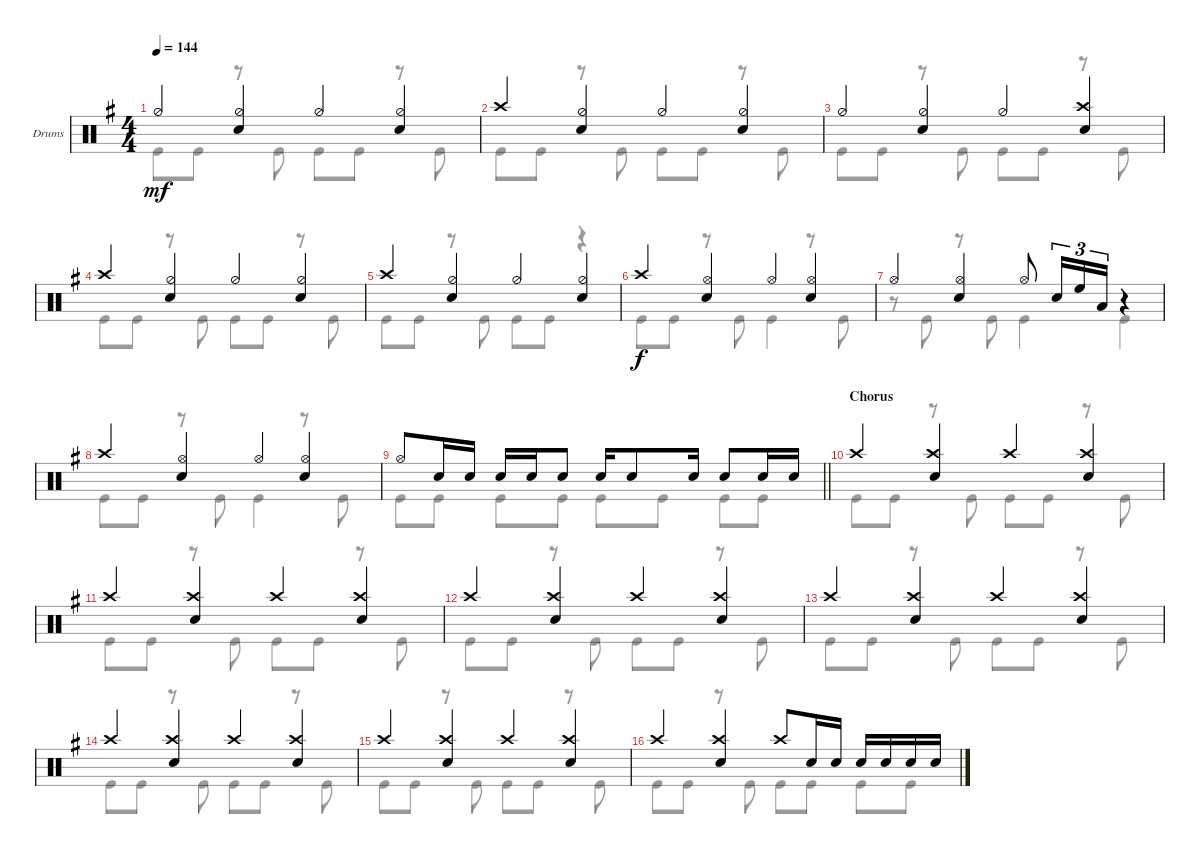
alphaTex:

\bracketExtendMode groupsimilarinstruments
\firstSystemTrackNameOrientation horizontal
\otherSystemsTrackNameOrientation horizontal
\track ("Drumkit" "Drums") {instrument percussion}
\staff {score}
\articulation defaults
\voice
\ts (4 4)
\tempo 144
\clef neutral
\scale
0.333333
\ks g "Hi-Hat (half)".4{dy mf}
("Hi-Hat (half)" "Snare (hit) 2").4 "Hi-Hat (half)".4 ("Hi-Hat (half)" "Snare (hit) 2").4 |
\scale
0.333333 "Crash high (hit)".4 ("Hi-Hat (half)" "Snare (hit) 2").4 "Hi-Hat (half)".4 ("Hi-Hat (half)" "Snare (hit) 2").4 |
\scale
0.333333 "Hi-Hat (half)".4 ("Hi-Hat (half)" "Snare (hit) 2").4 "Hi-Hat (half)".4 ("Crash high (hit)" "Snare (hit) 2").4 |
\scale
0.333333 "Crash high (hit)".4 ("Hi-Hat (half)" "Snare (hit) 2").4 "Hi-Hat (half)".4 ("Hi-Hat (half)" "Snare (hit) 2").4 |
\scale
0.333333 "Crash high (hit)".4 ("Hi-Hat (half)" "Snare (hit) 2").4 "Hi-Hat (half)".4 ("Hi-Hat (half)" "Snare (hit) 2").4 |
\scale
0.333333 "Crash high (hit)".4{dy f} ("Hi-Hat (open)" "Snare (hit) 2").4 "Hi-Hat (open)".4 ("Hi-Hat (open)" "Snare (hit) 2").4 |
\scale
0.333333 "Hi-Hat (open)".4 ("Hi-Hat (open)" "Snare (hit) 2").4 "Hi-Hat (open)".8 "Snare (hit) 2".16{tu (3 2)} "High Floor Tom (hit)".16{tu (3 2)} "Low Tom (hit)".16{tu (3 2)} r.4 |
\scale
0.333333 "Crash high (hit)".4 ("Hi-Hat (open)" "Snare (hit) 2").4 "Hi-Hat (open)".4 ("Hi-Hat (open)" "Snare (hit) 2").4 |
\scale
0.333333
\barLineRight lightlight "Hi-Hat (open)".8 "Snare (hit) 2".16 "Snare (hit) 2".16 "Snare (hit) 2".16 "Snare (hit) 2".16 "Snare (hit) 2".8 "Snare (hit) 2".16 "Snare (hit) 2".8 "Snare (hit) 2".16 "Snare (hit) 2".8 "Snare (hit) 2".16 "Snare (hit) 2".16
|
\section ("" "Chorus")
\scale
0.333333 "Crash high (hit)".4 ("Crash high (hit)" "Snare (hit) 2").4 "Crash high (hit)".4 ("Crash high (hit)" "Snare (hit) 2").4 |
\scale
0.333333 "Crash high (hit)".4 ("Crash high (hit)" "Snare (hit) 2").4 "Crash high (hit)".4 ("Crash high (hit)" "Snare (hit) 2").4 |
\scale
0.333333 "Crash high (hit)".4 ("Crash high (hit)" "Snare (hit) 2").4 "Crash high (hit)".4 ("Crash high (hit)" "Snare (hit) 2").4 |
\scale
0.333333 "Crash high (hit)".4 ("Crash high (hit)" "Snare (hit) 2").4 "Crash high (hit)".4 ("Crash high (hit)" "Snare (hit) 2").4 |
\scale
0.333333 "Crash high (hit)".4 ("Crash high (hit)" "Snare (hit) 2").4 "Crash high (hit)".4 ("Crash high (hit)" "Snare (hit) 2").4 |
\scale
0.333333 "Crash high (hit)".4 ("Crash high (hit)" "Snare (hit) 2").4 "Crash high (hit)".4 ("Crash high (hit)" "Snare (hit) 2").4 |
\scale
0.333333 "Crash high (hit)".4 ("Crash high (hit)" "Snare (hit) 2").4 "Crash high (hit)".8 "Snare (hit) 2".16 "Snare (hit) 2".16 "Snare (hit) 2".16 "Snare (hit) 2".16 "Snare (hit) 2".16 "Snare (hit) 2".16
\voice
\clef neutral
\ottava regular
\simile none
\scale
0.333333
\ks g "Kick (hit)".8{dy mf} "Kick (hit)".8
r.8 "Kick (hit)".8 "Kick (hit)".8 "Kick (hit)".8 r.8 "Kick (hit)".8 |
\scale
0.333333 "Kick (hit)".8 "Kick (hit)".8 r.8 "Kick (hit)".8 "Kick (hit)".8 "Kick (hit)".8 r.8 "Kick (hit)".8 |
\scale
0.333333 "Kick (hit)".8 "Kick (hit)".8 r.8 "Kick (hit)".8 "Kick (hit)".8 "Kick (hit)".8 r.8 "Kick (hit)".8 |
\scale
0.333333 "Kick (hit)".8 "Kick (hit)".8 r.8 "Kick (hit)".8 "Kick (hit)".8 "Kick (hit)".8 r.8 "Kick (hit)".8 |
\scale
0.333333 "Kick (hit)".8 "Kick (hit)".8 r.8 "Kick (hit)".8 "Kick (hit)".8 "Kick (hit)".8 r.4 |
\scale
0.333333 "Kick (hit)".8{dy f} "Kick (hit)".8 r.8 "Kick (hit)".8 "Kick (hit)".4 r.8 "Kick (hit)".8 |
\scale
0.333333 r.8 "Kick (hit)".8 r.8 "Kick (hit)".8 "Kick (hit)".4 "Kick (hit)".4 |
\scale
0.333333 "Kick (hit)".8 "Kick (hit)".8 r.8 "Kick (hit)".8 "Kick (hit)".4 r.8 "Kick (hit)".8 |
\scale
0.333333
\barLineRight lightlight "Kick (hit)".8 "Kick (hit)".8 "Kick (hit)".8 "Kick (hit)".8 "Kick (hit)".8 "Kick (hit)".8 "Kick (hit)".8 "Kick (hit)".8
|
\scale
0.333333 "Kick (hit)".8 "Kick (hit)".8 r.8 "Kick (hit)".8 "Kick (hit)".8 "Kick (hit)".8 r.8 "Kick (hit)".8 |
\scale
0.333333 "Kick (hit)".8 "Kick (hit)".8 r.8 "Kick (hit)".8 "Kick (hit)".8 "Kick (hit)".8 r.8 "Kick (hit)".8 |
\scale
0.333333 "Kick (hit)".8 "Kick (hit)".8 r.8 "Kick (hit)".8 "Kick (hit)".8 "Kick (hit)".8 r.8 "Kick (hit)".8 |
\scale
0.333333 "Kick (hit)".8 "Kick (hit)".8 r.8 "Kick (hit)".8 "Kick (hit)".8 "Kick (hit)".8 r.8 "Kick (hit)".8 |
\scale
0.333333 "Kick (hit)".8 "Kick (hit)".8 r.8 "Kick (hit)".8 "Kick (hit)".8 "Kick (hit)".8 r.8 "Kick (hit)".8 |
\scale
0.333333 "Kick (hit)".8 "Kick (hit)".8 r.8 "Kick (hit)".8 "Kick (hit)".8 "Kick (hit)".8 r.8 "Kick (hit)".8 |
\scale
0.333333 "Kick (hit)".8 "Kick (hit)".8 r.8 "Kick (hit)".8 "Kick (hit)".8 "Kick (hit)".8 "Kick (hit)".8 "Kick (hit)".8
